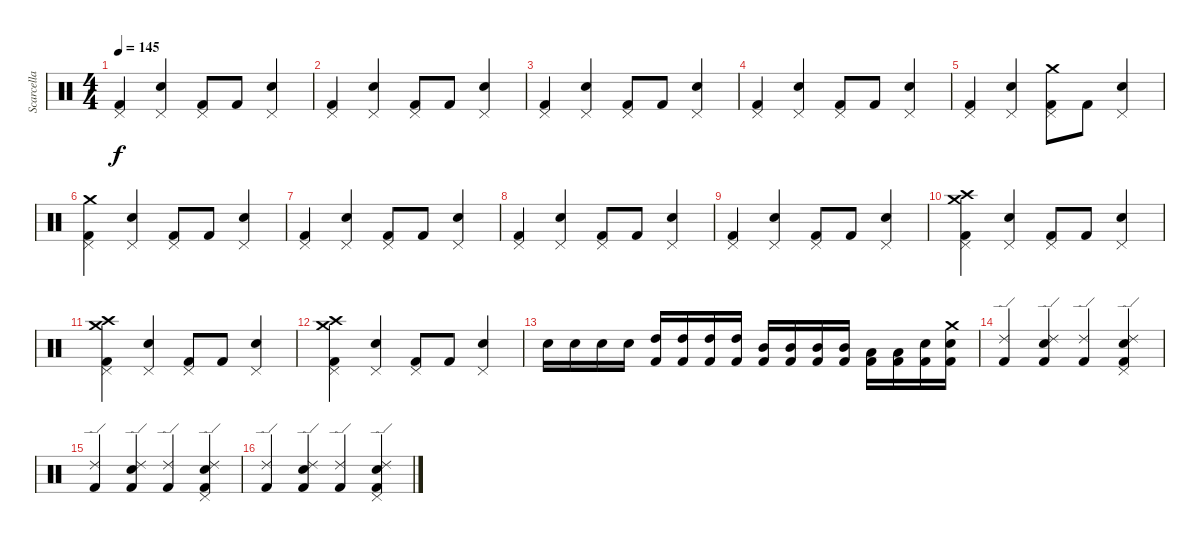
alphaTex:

\track ("Scarcella" "Scarcella") {instrument percussion}
\staff {score}
\articulation defaults
\ts (4 4)
\tempo 145
\clef neutral
\ks c
("Pedal Hi-Hat (hit)" "Kick (hit) 2").4{dy f} ("Pedal Hi-Hat (hit)" "Snare (hit) 2").4 ("Pedal Hi-Hat (hit)" "Kick (hit) 2").8 "Kick (hit) 2".8 ("Pedal Hi-Hat (hit)" "Snare (hit) 2").4 |
("Pedal Hi-Hat (hit)" "Kick (hit) 2").4 ("Pedal Hi-Hat (hit)" "Snare (hit) 2").4 ("Pedal Hi-Hat (hit)" "Kick (hit) 2").8 "Kick (hit) 2".8 ("Pedal Hi-Hat (hit)" "Snare (hit) 2").4 |
("Pedal Hi-Hat (hit)" "Kick (hit) 2").4 ("Pedal Hi-Hat (hit)" "Snare (hit) 2").4 ("Pedal Hi-Hat (hit)" "Kick (hit) 2").8 "Kick (hit) 2".8 ("Pedal Hi-Hat (hit)" "Snare (hit) 2").4 |
("Pedal Hi-Hat (hit)" "Kick (hit) 2").4 ("Pedal Hi-Hat (hit)" "Snare (hit) 2").4 ("Pedal Hi-Hat (hit)" "Kick (hit) 2").8 "Kick (hit) 2".8 ("Pedal Hi-Hat (hit)" "Snare (hit) 2").4 |
("Pedal Hi-Hat (hit)" "Kick (hit) 2").4 ("Pedal Hi-Hat (hit)" "Snare (hit) 2").4 ("Pedal Hi-Hat (hit)" "Crash medium (hit)" "Kick (hit) 2").8 "Kick (hit) 2".8 ("Pedal Hi-Hat (hit)" "Snare (hit) 2").4 |
("Pedal Hi-Hat (hit)" "Crash medium (hit)" "Kick (hit) 2").4 ("Pedal Hi-Hat (hit)" "Snare (hit) 2").4 ("Pedal Hi-Hat (hit)" "Kick (hit) 2").8 "Kick (hit) 2".8 ("Pedal Hi-Hat (hit)" "Snare (hit) 2").4 |
("Pedal Hi-Hat (hit)" "Kick (hit) 2").4 ("Pedal Hi-Hat (hit)" "Snare (hit) 2").4 ("Pedal Hi-Hat (hit)" "Kick (hit) 2").8 "Kick (hit) 2".8 ("Pedal Hi-Hat (hit)" "Snare (hit) 2").4 |
("Pedal Hi-Hat (hit)" "Kick (hit) 2").4 ("Pedal Hi-Hat (hit)" "Snare (hit) 2").4 ("Pedal Hi-Hat (hit)" "Kick (hit) 2").8 "Kick (hit) 2".8 ("Pedal Hi-Hat (hit)" "Snare (hit) 2").4 |
("Pedal Hi-Hat (hit)" "Kick (hit) 2").4 ("Pedal Hi-Hat (hit)" "Snare (hit) 2").4 ("Pedal Hi-Hat (hit)" "Kick (hit) 2").8 "Kick (hit) 2".8 ("Pedal Hi-Hat (hit)" "Snare (hit) 2").4 |
("Pedal Hi-Hat (hit)" "Crash high (hit)" "Crash medium (hit)" "Kick (hit) 2").4 ("Pedal Hi-Hat (hit)" "Snare (hit) 2").4 ("Pedal Hi-Hat (hit)" "Kick (hit) 2").8 "Kick (hit) 2".8 ("Pedal Hi-Hat (hit)" "Snare (hit) 2").4 |
("Pedal Hi-Hat (hit)" "Crash medium (hit)" "Crash high (hit)" "Kick (hit) 2").4 ("Pedal Hi-Hat (hit)" "Snare (hit) 2").4 ("Pedal Hi-Hat (hit)" "Kick (hit) 2").8 "Kick (hit) 2".8 ("Pedal Hi-Hat (hit)" "Snare (hit) 2").4 |
("Pedal Hi-Hat (hit)" "Crash high (hit)" "Crash medium (hit)" "Kick (hit) 2").4 ("Pedal Hi-Hat (hit)" "Snare (hit) 2").4 ("Pedal Hi-Hat (hit)" "Kick (hit) 2").8 "Kick (hit) 2".8 ("Pedal Hi-Hat (hit)" "Snare (hit) 2").4 |
"Snare (hit) 2".16 "Snare (hit) 2".16 "Snare (hit) 2".16 "Snare (hit) 2".16 ("High Tom (hit)" "Kick (hit) 2").16 ("High Tom (hit)" "Kick (hit) 2").16 ("High Tom (hit)" "Kick (hit) 2").16 ("High Tom (hit)" "Kick (hit) 2").16 ("Mid Tom (hit)" "Kick (hit) 2").16 ("Mid Tom (hit)" "Kick (hit) 2").16 ("Mid Tom (hit)" "Kick (hit) 2").16 ("Mid Tom (hit)" "Kick (hit) 2").16 ("Low Tom (hit)" "Kick (hit) 2").16 ("Low Tom (hit)" "Kick (hit) 2").16 ("Snare (hit) 2" "Kick (hit) 2").16 ("Crash medium (hit)" "Snare (hit) 2" "Kick (hit) 2").16 |
("Ride (edge) 2" "Kick (hit) 2").4 ("Ride (edge) 2" "Snare (hit) 2" "Kick (hit) 2").4 ("Ride (edge) 2" "Kick (hit) 2").4 ("Pedal Hi-Hat (hit)" "Ride (edge) 2" "Snare (hit) 2" "Kick (hit) 2").4 |
("Ride (edge) 2" "Kick (hit) 2").4 ("Ride (edge) 2" "Snare (hit) 2" "Kick (hit) 2").4 ("Ride (edge) 2" "Kick (hit) 2").4 ("Pedal Hi-Hat (hit)" "Ride (edge) 2" "Snare (hit) 2" "Kick (hit) 2").4 |
("Ride (edge) 2" "Kick (hit) 2").4 ("Ride (edge) 2" "Snare (hit) 2" "Kick (hit) 2").4 ("Ride (edge) 2" "Kick (hit) 2").4 ("Pedal Hi-Hat (hit)" "Ride (edge) 2" "Snare (hit) 2" "Kick (hit) 2").4
